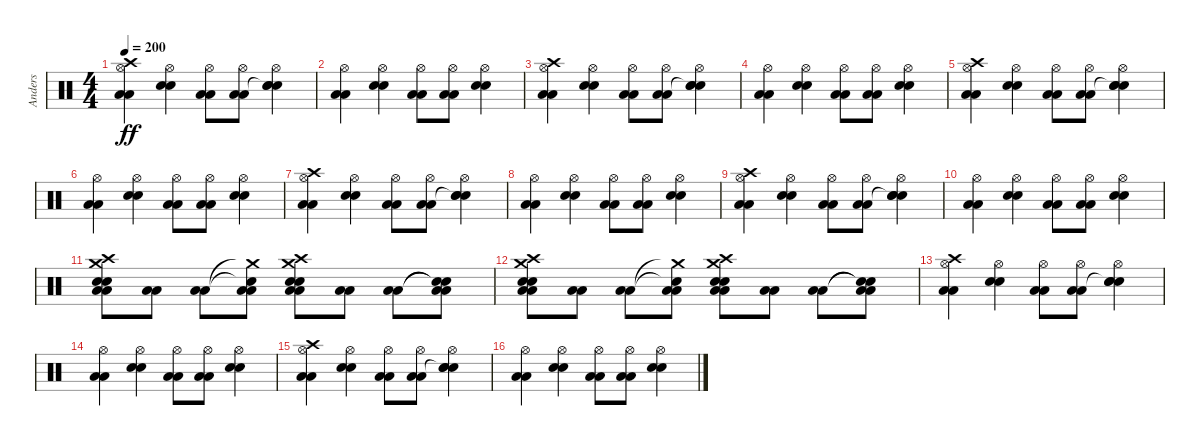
\track ("Anders" "Anders") {instrument percussion}
\staff {score}
\articulation defaults
\ts (4 4)
\tempo 200
\clef neutral
\ks c
("Hi-Hat (open)" "Crash high (hit)" "Low Floor Tom (hit)" "Low Floor Tom (hit)").4{dy ff} ("Hi-Hat (open)" "Electric Snare (hit)" "Electric Snare (hit)").4 ("Hi-Hat (open)" "Low Floor Tom (hit)" "Low Floor Tom (hit)").8 ("Hi-Hat (open)" "Low Floor Tom (hit)" "Low Floor Tom (hit)").8 ("Hi-Hat (open)" "Snare (hit)"{t} "Electric Snare (hit)" "Electric Snare (hit)").4 |
("Hi-Hat (open)" "Low Floor Tom (hit)" "Low Floor Tom (hit)").4 ("Hi-Hat (open)" "Electric Snare (hit)" "Electric Snare (hit)").4 ("Hi-Hat (open)" "Low Floor Tom (hit)" "Low Floor Tom (hit)").8 ("Hi-Hat (open)" "Low Floor Tom (hit)" "Low Floor Tom (hit)").8 ("Hi-Hat (open)" "Electric Snare (hit)" "Electric Snare (hit)").4 |
("Hi-Hat (open)" "Crash high (hit)" "Low Floor Tom (hit)" "Low Floor Tom (hit)").4 ("Hi-Hat (open)" "Electric Snare (hit)" "Electric Snare (hit)").4 ("Hi-Hat (open)" "Low Floor Tom (hit)" "Low Floor Tom (hit)").8 ("Hi-Hat (open)" "Low Floor Tom (hit)" "Low Floor Tom (hit)").8 ("Hi-Hat (open)" "Snare (hit)"{t} "Electric Snare (hit)" "Electric Snare (hit)").4 |
("Hi-Hat (open)" "Low Floor Tom (hit)" "Low Floor Tom (hit)").4 ("Hi-Hat (open)" "Electric Snare (hit)" "Electric Snare (hit)").4 ("Hi-Hat (open)" "Low Floor Tom (hit)" "Low Floor Tom (hit)").8 ("Hi-Hat (open)" "Low Floor Tom (hit)" "Low Floor Tom (hit)").8 ("Hi-Hat (open)" "Electric Snare (hit)" "Electric Snare (hit)").4 |
("Hi-Hat (open)" "Crash high (hit)" "Low Floor Tom (hit)" "Low Floor Tom (hit)").4 ("Hi-Hat (open)" "Electric Snare (hit)" "Electric Snare (hit)").4 ("Hi-Hat (open)" "Low Floor Tom (hit)" "Low Floor Tom (hit)").8 ("Hi-Hat (open)" "Low Floor Tom (hit)" "Low Floor Tom (hit)").8 ("Hi-Hat (open)" "Snare (hit)"{t} "Electric Snare (hit)" "Electric Snare (hit)").4 |
("Hi-Hat (open)" "Low Floor Tom (hit)" "Low Floor Tom (hit)").4 ("Hi-Hat (open)" "Electric Snare (hit)" "Electric Snare (hit)").4 ("Hi-Hat (open)" "Low Floor Tom (hit)" "Low Floor Tom (hit)").8 ("Hi-Hat (open)" "Low Floor Tom (hit)" "Low Floor Tom (hit)").8 ("Hi-Hat (open)" "Electric Snare (hit)" "Electric Snare (hit)").4 |
("Hi-Hat (open)" "Crash high (hit)" "Low Floor Tom (hit)" "Low Floor Tom (hit)").4 ("Hi-Hat (open)" "Electric Snare (hit)" "Electric Snare (hit)").4 ("Hi-Hat (open)" "Low Floor Tom (hit)" "Low Floor Tom (hit)").8 ("Hi-Hat (open)" "Low Floor Tom (hit)" "Low Floor Tom (hit)").8 ("Hi-Hat (open)" "Snare (hit)"{t} "Electric Snare (hit)" "Electric Snare (hit)").4 |
("Hi-Hat (open)" "Low Floor Tom (hit)" "Low Floor Tom (hit)").4 ("Hi-Hat (open)" "Electric Snare (hit)" "Electric Snare (hit)").4 ("Hi-Hat (open)" "Low Floor Tom (hit)" "Low Floor Tom (hit)").8 ("Hi-Hat (open)" "Low Floor Tom (hit)" "Low Floor Tom (hit)").8 ("Hi-Hat (open)" "Electric Snare (hit)" "Electric Snare (hit)").4 |
("Hi-Hat (open)" "Crash high (hit)" "Low Floor Tom (hit)" "Low Floor Tom (hit)").4 ("Hi-Hat (open)" "Electric Snare (hit)" "Electric Snare (hit)").4 ("Hi-Hat (open)" "Low Floor Tom (hit)" "Low Floor Tom (hit)").8 ("Hi-Hat (open)" "Low Floor Tom (hit)" "Low Floor Tom (hit)").8 ("Hi-Hat (open)" "Snare (hit)"{t} "Electric Snare (hit)" "Electric Snare (hit)").4 |
("Hi-Hat (open)" "Low Floor Tom (hit)" "Low Floor Tom (hit)").4 ("Hi-Hat (open)" "Electric Snare (hit)" "Electric Snare (hit)").4 ("Hi-Hat (open)" "Low Floor Tom (hit)" "Low Floor Tom (hit)").8 ("Hi-Hat (open)" "Low Floor Tom (hit)" "Low Floor Tom (hit)").8 ("Hi-Hat (open)" "Electric Snare (hit)" "Electric Snare (hit)").4 |
("Crash high (hit)" "Crash medium (hit)" "Electric Snare (hit)" "Electric Snare (hit)" "Low Floor Tom (hit)" "Low Floor Tom (hit)").8 ("Low Floor Tom (hit)" "Low Floor Tom (hit)").8 ("Low Floor Tom (hit)" "Low Floor Tom (hit)").8 ("Crash medium (hit)"{t} "Snare (hit)"{t} "Low Floor Tom (hit)" "Low Floor Tom (hit)").8 ("Crash medium (hit)" "Crash high (hit)" "Electric Snare (hit)" "Electric Snare (hit)" "Low Floor Tom (hit)" "Low Floor Tom (hit)").8 ("Low Floor Tom (hit)" "Low Floor Tom (hit)").8 ("Low Floor Tom (hit)" "Low Floor Tom (hit)").8 ("Snare (hit)"{t} "Snare (hit)"{t} "Low Floor Tom (hit)" "Low Floor Tom (hit)").8 |
("Crash high (hit)" "Crash medium (hit)" "Electric Snare (hit)" "Electric Snare (hit)" "Low Floor Tom (hit)" "Low Floor Tom (hit)").8 ("Low Floor Tom (hit)" "Low Floor Tom (hit)").8 ("Low Floor Tom (hit)" "Low Floor Tom (hit)").8 ("Crash medium (hit)"{t} "Snare (hit)"{t} "Low Floor Tom (hit)" "Low Floor Tom (hit)").8 ("Crash medium (hit)" "Crash high (hit)" "Electric Snare (hit)" "Electric Snare (hit)" "Low Floor Tom (hit)" "Low Floor Tom (hit)").8 ("Low Floor Tom (hit)" "Low Floor Tom (hit)").8 ("Low Floor Tom (hit)" "Low Floor Tom (hit)").8 ("Snare (hit)"{t} "Snare (hit)"{t} "Low Floor Tom (hit)" "Low Floor Tom (hit)").8 |
("Hi-Hat (open)" "Crash high (hit)" "Low Floor Tom (hit)" "Low Floor Tom (hit)").4 ("Hi-Hat (open)" "Electric Snare (hit)" "Electric Snare (hit)").4 ("Hi-Hat (open)" "Low Floor Tom (hit)" "Low Floor Tom (hit)").8 ("Hi-Hat (open)" "Low Floor Tom (hit)" "Low Floor Tom (hit)").8 ("Hi-Hat (open)" "Snare (hit)"{t} "Electric Snare (hit)" "Electric Snare (hit)").4 |
("Hi-Hat (open)" "Low Floor Tom (hit)" "Low Floor Tom (hit)").4 ("Hi-Hat (open)" "Electric Snare (hit)" "Electric Snare (hit)").4 ("Hi-Hat (open)" "Low Floor Tom (hit)" "Low Floor Tom (hit)").8 ("Hi-Hat (open)" "Low Floor Tom (hit)" "Low Floor Tom (hit)").8 ("Hi-Hat (open)" "Electric Snare (hit)" "Electric Snare (hit)").4 |
("Hi-Hat (open)" "Crash high (hit)" "Low Floor Tom (hit)" "Low Floor Tom (hit)").4 ("Hi-Hat (open)" "Electric Snare (hit)" "Electric Snare (hit)").4 ("Hi-Hat (open)" "Low Floor Tom (hit)" "Low Floor Tom (hit)").8 ("Hi-Hat (open)" "Low Floor Tom (hit)" "Low Floor Tom (hit)").8 ("Hi-Hat (open)" "Snare (hit)"{t} "Electric Snare (hit)" "Electric Snare (hit)").4 |
("Hi-Hat (open)" "Low Floor Tom (hit)" "Low Floor Tom (hit)").4 ("Hi-Hat (open)" "Electric Snare (hit)" "Electric Snare (hit)").4 ("Hi-Hat (open)" "Low Floor Tom (hit)" "Low Floor Tom (hit)").8 ("Hi-Hat (open)" "Low Floor Tom (hit)" "Low Floor Tom (hit)").8 ("Hi-Hat (open)" "Electric Snare (hit)" "Electric Snare (hit)").4
